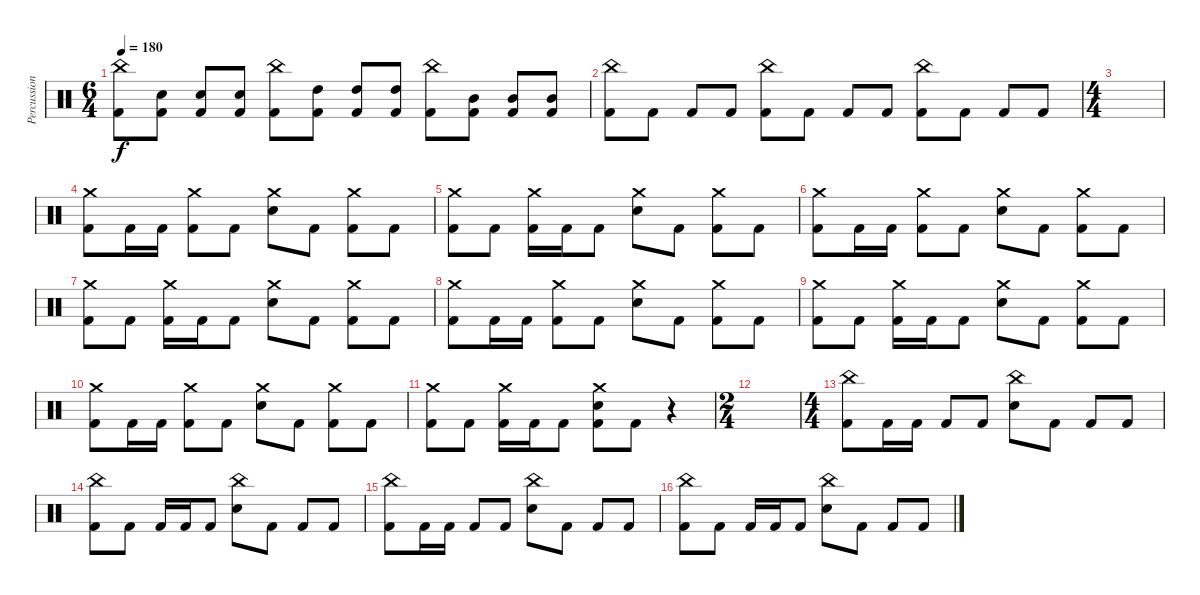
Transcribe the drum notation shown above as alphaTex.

\track ("Percussion" "Percussion") {instrument percussion}
\staff {score}
\articulation defaults
\ts (6 4)
\tempo 180
\clef neutral
\ks c
("China (hit)" "Kick (hit) 2").8{dy f} ("Electric Snare (hit)" "Kick (hit) 2").8 ("Electric Snare (hit)" "Kick (hit) 2").8 ("Electric Snare (hit)" "Kick (hit) 2").8 ("China (hit)" "Kick (hit) 2").8 ("High Tom (hit)" "Kick (hit) 2").8 ("High Tom (hit)" "Kick (hit) 2").8 ("High Tom (hit)" "Kick (hit) 2").8 ("China (hit)" "Kick (hit) 2").8 ("Mid Tom (hit)" "Kick (hit) 2").8 ("Mid Tom (hit)" "Kick (hit) 2").8 ("Mid Tom (hit)" "Kick (hit) 2").8 |
("China (hit)" "Kick (hit) 2").8 "Kick (hit) 2".8 "Kick (hit) 2".8 "Kick (hit) 2".8 ("China (hit)" "Kick (hit) 2").8 "Kick (hit) 2".8 "Kick (hit) 2".8 "Kick (hit) 2".8 ("China (hit)" "Kick (hit) 2").8 "Kick (hit) 2".8 "Kick (hit) 2".8 "Kick (hit) 2".8 |
\ts (4 4)
|
("Crash medium (hit)" "Kick (hit) 2").8 "Kick (hit) 2".16 "Kick (hit) 2".16 ("Crash medium (hit)" "Kick (hit) 2").8 "Kick (hit) 2".8 ("Electric Snare (hit)" "Crash medium (hit)").8 "Kick (hit) 2".8 ("Crash medium (hit)" "Kick (hit) 2").8 "Kick (hit) 2".8 |
("Crash medium (hit)" "Kick (hit) 2").8 "Kick (hit) 2".8 ("Crash medium (hit)" "Kick (hit) 2").16 "Kick (hit) 2".16 "Kick (hit) 2".8 ("Electric Snare (hit)" "Crash medium (hit)").8 "Kick (hit) 2".8 ("Crash medium (hit)" "Kick (hit) 2").8 "Kick (hit) 2".8 |
("Crash medium (hit)" "Kick (hit) 2").8 "Kick (hit) 2".16 "Kick (hit) 2".16 ("Crash medium (hit)" "Kick (hit) 2").8 "Kick (hit) 2".8 ("Electric Snare (hit)" "Crash medium (hit)").8 "Kick (hit) 2".8 ("Crash medium (hit)" "Kick (hit) 2").8 "Kick (hit) 2".8 |
("Crash medium (hit)" "Kick (hit) 2").8 "Kick (hit) 2".8 ("Crash medium (hit)" "Kick (hit) 2").16 "Kick (hit) 2".16 "Kick (hit) 2".8 ("Electric Snare (hit)" "Crash medium (hit)").8 "Kick (hit) 2".8 ("Crash medium (hit)" "Kick (hit) 2").8 "Kick (hit) 2".8 |
("Crash medium (hit)" "Kick (hit) 2").8 "Kick (hit) 2".16 "Kick (hit) 2".16 ("Crash medium (hit)" "Kick (hit) 2").8 "Kick (hit) 2".8 ("Electric Snare (hit)" "Crash medium (hit)").8 "Kick (hit) 2".8 ("Crash medium (hit)" "Kick (hit) 2").8 "Kick (hit) 2".8 |
("Crash medium (hit)" "Kick (hit) 2").8 "Kick (hit) 2".8 ("Crash medium (hit)" "Kick (hit) 2").16 "Kick (hit) 2".16 "Kick (hit) 2".8 ("Electric Snare (hit)" "Crash medium (hit)").8 "Kick (hit) 2".8 ("Crash medium (hit)" "Kick (hit) 2").8 "Kick (hit) 2".8 |
("Crash medium (hit)" "Kick (hit) 2").8 "Kick (hit) 2".16 "Kick (hit) 2".16 ("Crash medium (hit)" "Kick (hit) 2").8 "Kick (hit) 2".8 ("Electric Snare (hit)" "Crash medium (hit)").8 "Kick (hit) 2".8 ("Crash medium (hit)" "Kick (hit) 2").8 "Kick (hit) 2".8 |
("Crash medium (hit)" "Kick (hit) 2").8 "Kick (hit) 2".8 ("Crash medium (hit)" "Kick (hit) 2").16 "Kick (hit) 2".16 "Kick (hit) 2".8 ("Electric Snare (hit)" "Crash medium (hit)" "Kick (hit) 2").8 "Kick (hit) 2".8 r.4 |
\ts (2 4)
|
\ts (4 4)
("China (hit)" "Kick (hit) 2").8 "Kick (hit) 2".16 "Kick (hit) 2".16 "Kick (hit) 2".8 "Kick (hit) 2".8 ("Electric Snare (hit)" "China (hit)").8 "Kick (hit) 2".8 "Kick (hit) 2".8 "Kick (hit) 2".8 |
("China (hit)" "Kick (hit) 2").8 "Kick (hit) 2".8 "Kick (hit) 2".16 "Kick (hit) 2".16 "Kick (hit) 2".8 ("Electric Snare (hit)" "China (hit)").8 "Kick (hit) 2".8 "Kick (hit) 2".8 "Kick (hit) 2".8 |
("China (hit)" "Kick (hit) 2").8 "Kick (hit) 2".16 "Kick (hit) 2".16 "Kick (hit) 2".8 "Kick (hit) 2".8 ("Electric Snare (hit)" "China (hit)").8 "Kick (hit) 2".8 "Kick (hit) 2".8 "Kick (hit) 2".8 |
("China (hit)" "Kick (hit) 2").8 "Kick (hit) 2".8 "Kick (hit) 2".16 "Kick (hit) 2".16 "Kick (hit) 2".8 ("Electric Snare (hit)" "China (hit)").8 "Kick (hit) 2".8 "Kick (hit) 2".8 "Kick (hit) 2".8
